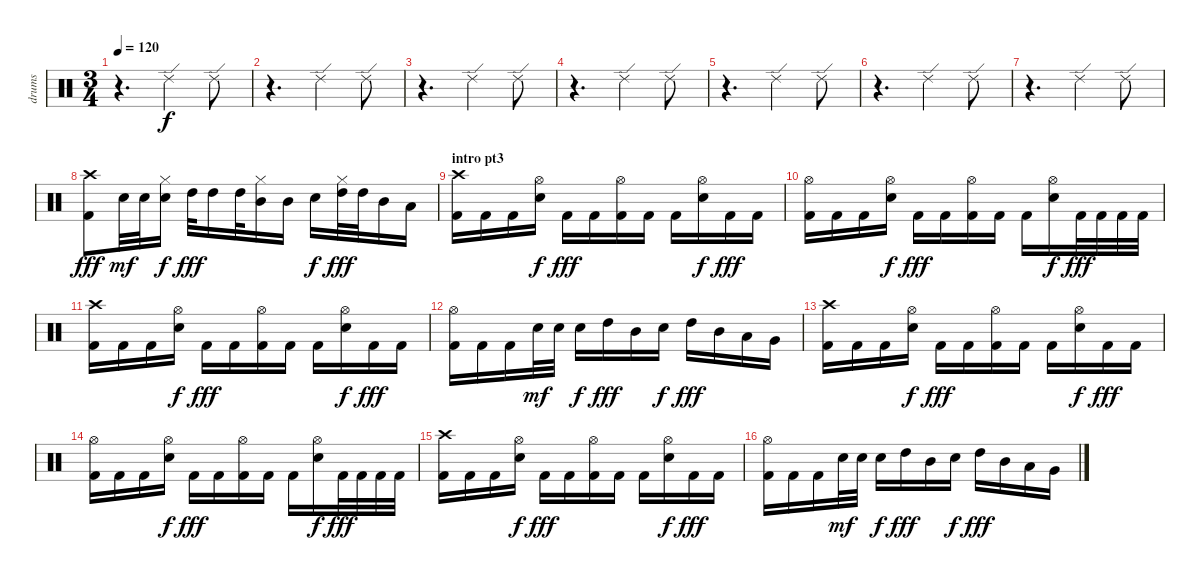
\track ("drums" "drums") {instrument percussion}
\staff {score}
\articulation defaults
\ts (3 4)
\tempo 120
\clef neutral
\ks c
r.4{d dy fff} "Ride (edge) 2".4{dy f} "Ride (edge) 2".8 |
r.4{d} "Ride (edge) 2".4 "Ride (edge) 2".8 |
r.4{d} "Ride (edge) 2".4 "Ride (edge) 2".8 |
r.4{d} "Ride (edge) 2".4 "Ride (edge) 2".8 |
r.4{d} "Ride (edge) 2".4 "Ride (edge) 2".8 |
r.4{d} "Ride (edge) 2".4 "Ride (edge) 2".8 |
r.4{d} "Ride (edge) 2".4 "Ride (edge) 2".8 |
("Crash high (hit)" "Kick (hit) 2").8{dy fff} "Snare (hit) 2".32{dy mf} "Snare (hit) 2".32 ("Hi-Hat (closed)" "Snare (hit) 2").16{dy f} "High Tom (hit)".32{dy fff} "High Tom (hit)".16 "High Tom (hit)".32 ("Hi-Hat (closed)" "Mid Tom (hit)").16 "Mid Tom (hit)".16 "Snare (hit) 2".16{dy f} ("Hi-Hat (closed)" "High Tom (hit)").32{dy fff} "High Tom (hit)".32 "Mid Tom (hit)".16 "Low Tom (hit)".16 |
\section ("" "intro pt3")
("Crash high (hit)" "Kick (hit) 2").16 "Kick (hit) 2".16 "Kick (hit) 2".16 ("Hi-Hat (open)" "Snare (hit) 2").16{dy f} "Kick (hit) 2".16{dy fff} "Kick (hit) 2".16 ("Hi-Hat (open)" "Kick (hit) 2").16 "Kick (hit) 2".16 "Kick (hit) 2".16 ("Hi-Hat (open)" "Snare (hit) 2").16{dy f} "Kick (hit) 2".16{dy fff} "Kick (hit) 2".16 |
("Hi-Hat (open)" "Kick (hit) 2").16 "Kick (hit) 2".16 "Kick (hit) 2".16 ("Hi-Hat (open)" "Snare (hit) 2").16{dy f} "Kick (hit) 2".16{dy fff} "Kick (hit) 2".16 ("Hi-Hat (open)" "Kick (hit) 2").16 "Kick (hit) 2".16 "Kick (hit) 2".16 ("Hi-Hat (open)" "Snare (hit) 2").16{dy f} "Kick (hit) 2".32{dy fff} "Kick (hit) 2".32 "Kick (hit) 2".32 "Kick (hit) 2".32 |
("Crash high (hit)" "Kick (hit) 2").16 "Kick (hit) 2".16 "Kick (hit) 2".16 ("Hi-Hat (open)" "Snare (hit) 2").16{dy f} "Kick (hit) 2".16{dy fff} "Kick (hit) 2".16 ("Hi-Hat (open)" "Kick (hit) 2").16 "Kick (hit) 2".16 "Kick (hit) 2".16 ("Hi-Hat (open)" "Snare (hit) 2").16{dy f} "Kick (hit) 2".16{dy fff} "Kick (hit) 2".16 |
("Hi-Hat (open)" "Kick (hit) 2").16 "Kick (hit) 2".16 "Kick (hit) 2".16 "Snare (hit) 2".32{dy mf} "Snare (hit) 2".32 "Snare (hit) 2".16{dy f} "High Tom (hit)".16{dy fff} "Mid Tom (hit)".16 "Snare (hit) 2".16{dy f} "High Tom (hit)".16{dy fff} "Mid Tom (hit)".16 "Low Tom (hit)".16 "Very Low Tom (hit)".16 |
("Crash high (hit)" "Kick (hit) 2").16 "Kick (hit) 2".16 "Kick (hit) 2".16 ("Hi-Hat (open)" "Snare (hit) 2").16{dy f} "Kick (hit) 2".16{dy fff} "Kick (hit) 2".16 ("Hi-Hat (open)" "Kick (hit) 2").16 "Kick (hit) 2".16 "Kick (hit) 2".16 ("Hi-Hat (open)" "Snare (hit) 2").16{dy f} "Kick (hit) 2".16{dy fff} "Kick (hit) 2".16 |
("Hi-Hat (open)" "Kick (hit) 2").16 "Kick (hit) 2".16 "Kick (hit) 2".16 ("Hi-Hat (open)" "Snare (hit) 2").16{dy f} "Kick (hit) 2".16{dy fff} "Kick (hit) 2".16 ("Hi-Hat (open)" "Kick (hit) 2").16 "Kick (hit) 2".16 "Kick (hit) 2".16 ("Hi-Hat (open)" "Snare (hit) 2").16{dy f} "Kick (hit) 2".32{dy fff} "Kick (hit) 2".32 "Kick (hit) 2".32 "Kick (hit) 2".32 |
("Crash high (hit)" "Kick (hit) 2").16 "Kick (hit) 2".16 "Kick (hit) 2".16 ("Hi-Hat (open)" "Snare (hit) 2").16{dy f} "Kick (hit) 2".16{dy fff} "Kick (hit) 2".16 ("Hi-Hat (open)" "Kick (hit) 2").16 "Kick (hit) 2".16 "Kick (hit) 2".16 ("Hi-Hat (open)" "Snare (hit) 2").16{dy f} "Kick (hit) 2".16{dy fff} "Kick (hit) 2".16 |
("Hi-Hat (open)" "Kick (hit) 2").16 "Kick (hit) 2".16 "Kick (hit) 2".16 "Snare (hit) 2".32{dy mf} "Snare (hit) 2".32 "Snare (hit) 2".16{dy f} "High Tom (hit)".16{dy fff} "Mid Tom (hit)".16 "Snare (hit) 2".16{dy f} "High Tom (hit)".16{dy fff} "Mid Tom (hit)".16 "Low Tom (hit)".16 "Very Low Tom (hit)".16
